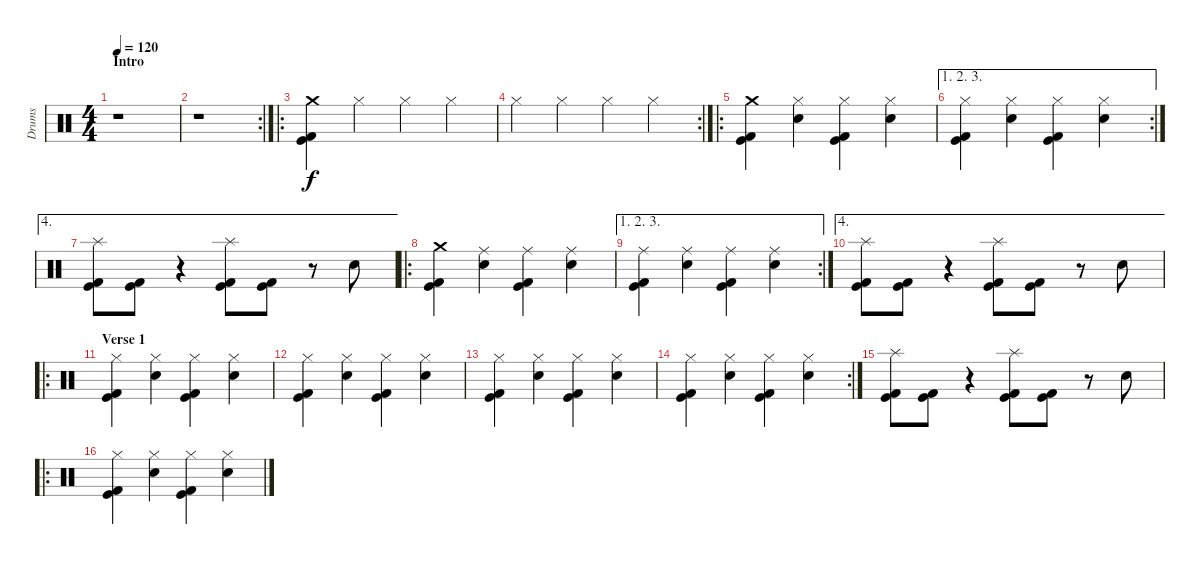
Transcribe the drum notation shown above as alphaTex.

\track ("Drums" "Drums") {instrument percussion}
\staff {score}
\articulation defaults
\ts (4 4)
\section ("" "Intro")
\tempo 120
\clef neutral
\ks c
r.1{dy f} |
\rc 2
r.1 |
\ro
("Kick (hit)" "Kick (hit) 2" "Crash medium (hit)").4 "Hi-Hat (closed)".4 "Hi-Hat (closed)".4 "Hi-Hat (closed)".4 |
\rc 2 "Hi-Hat (closed)".4 "Hi-Hat (closed)".4 "Hi-Hat (closed)".4 "Hi-Hat (closed)".4
|
\ro
("Kick (hit)" "Kick (hit) 2" "Crash medium (hit)").4 ("Snare (hit) 2" "Hi-Hat (closed)").4 ("Kick (hit)" "Kick (hit) 2" "Hi-Hat (closed)").4 ("Snare (hit) 2" "Hi-Hat (closed)").4 |
\ae (1 2 3)
\rc 2
("Kick (hit)" "Kick (hit) 2" "Hi-Hat (closed)").4 ("Snare (hit) 2" "Hi-Hat (closed)").4 ("Kick (hit)" "Kick (hit) 2" "Hi-Hat (closed)").4 ("Snare (hit) 2" "Hi-Hat (closed)").4 |
\ae 4
("Kick (hit)" "Kick (hit) 2" "Splash (hit)").8 ("Kick (hit)" "Kick (hit) 2").8 r.4 ("Kick (hit)" "Kick (hit) 2" "Splash (hit)").8 ("Kick (hit)" "Kick (hit) 2").8 r.8 "Snare (hit) 2".8 |
\ro
("Kick (hit)" "Kick (hit) 2" "Crash medium (hit)").4 ("Snare (hit) 2" "Ride (middle)").4 ("Kick (hit)" "Kick (hit) 2" "Ride (middle)").4 ("Snare (hit) 2" "Ride (middle)").4 |
\ae (1 2 3)
\rc 2
("Kick (hit)" "Kick (hit) 2" "Ride (middle)").4 ("Snare (hit) 2" "Ride (middle)").4 ("Kick (hit)" "Kick (hit) 2" "Ride (middle)").4 ("Snare (hit) 2" "Ride (middle)").4 |
\ae 4
("Kick (hit)" "Kick (hit) 2" "Splash (hit)").8 ("Kick (hit)" "Kick (hit) 2").8 r.4 ("Kick (hit)" "Kick (hit) 2" "Splash (hit)").8 ("Kick (hit)" "Kick (hit) 2").8 r.8 "Snare (hit) 2".8 |
\ro
\section ("" "Verse 1")
("Kick (hit)" "Kick (hit) 2" "Hi-Hat (closed)").4 ("Snare (hit) 2" "Hi-Hat (closed)").4 ("Kick (hit)" "Kick (hit) 2" "Hi-Hat (closed)").4 ("Snare (hit) 2" "Hi-Hat (closed)").4 |
("Kick (hit)" "Kick (hit) 2" "Hi-Hat (closed)").4 ("Snare (hit) 2" "Hi-Hat (closed)").4 ("Kick (hit)" "Kick (hit) 2" "Hi-Hat (closed)").4 ("Snare (hit) 2" "Hi-Hat (closed)").4 |
("Kick (hit)" "Kick (hit) 2" "Hi-Hat (closed)").4 ("Snare (hit) 2" "Hi-Hat (closed)").4 ("Kick (hit)" "Kick (hit) 2" "Hi-Hat (closed)").4 ("Snare (hit) 2" "Hi-Hat (closed)").4 |
\rc 2
("Kick (hit)" "Kick (hit) 2" "Hi-Hat (closed)").4 ("Snare (hit) 2" "Hi-Hat (closed)").4 ("Kick (hit)" "Kick (hit) 2" "Hi-Hat (closed)").4 ("Snare (hit) 2" "Hi-Hat (closed)").4 |
("Kick (hit)" "Kick (hit) 2" "Splash (hit)").8 ("Kick (hit)" "Kick (hit) 2").8 r.4 ("Kick (hit)" "Kick (hit) 2" "Splash (hit)").8 ("Kick (hit)" "Kick (hit) 2").8 r.8 "Snare (hit) 2".8 |
\ro
("Kick (hit)" "Kick (hit) 2" "Hi-Hat (closed)").4 ("Snare (hit) 2" "Hi-Hat (closed)").4 ("Kick (hit)" "Kick (hit) 2" "Hi-Hat (closed)").4 ("Snare (hit) 2" "Hi-Hat (closed)").4
